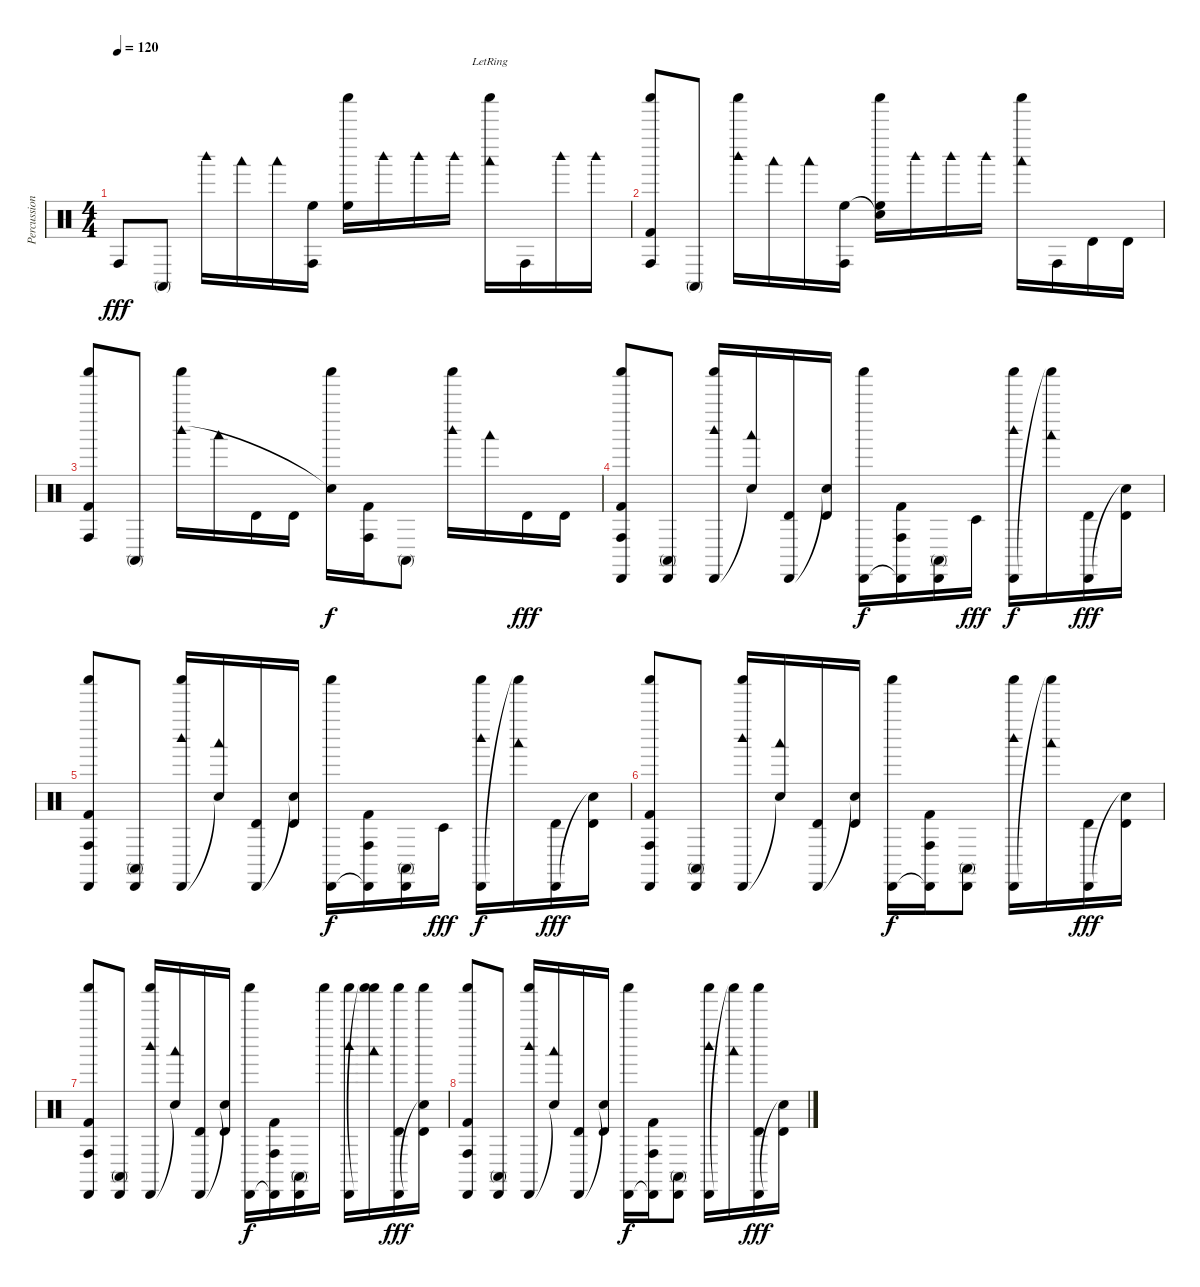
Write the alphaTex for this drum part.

\track ("Percussion" "Percussion") {instrument percussion}
\staff {score}
\articulation defaults
\ts (4 4)
\tempo 120
\clef neutral
\ks c "Conga high (hit)".8{dy fff} "Conga high (mute)".8 "Woodblock high (hit)".16 "Woodblock low (hit)".16 "Woodblock low (hit)".16
("Conga high (hit)" "High Floor Tom (hit)").16 ("Shaker (hit)" "High Floor Tom (hit)").16 "Woodblock high (hit)".16 "Woodblock high (hit)".16 "Woodblock high (hit)".16 ("Shaker (hit)"{lr} "Woodblock low (hit)").16 "Conga high (hit)".16 "Woodblock high (hit)".16 "Woodblock high (hit)".16 |
("Shaker (hit)" "Conga high (hit)" "Kick (hit) 2").8 "Conga high (mute)".8 ("Shaker (hit)" "Woodblock high (hit)").16 "Woodblock low (hit)".16 "Woodblock low (hit)".16 ("Conga high (hit)" "High Floor Tom (hit)").16 ("Shaker (hit)" "Snare (hit)"{t} "High Floor Tom (hit)").16 "Woodblock high (hit)".16 "Woodblock high (hit)".16 "Woodblock high (hit)".16 ("Shaker (hit)" "Woodblock low (hit)").16 "Conga high (hit)".16 "Timbale high (hit)".16 "Timbale high (hit)".16 |
("Shaker (hit)" "Conga high (hit)" "Kick (hit) 2").8 "Conga high (mute)".8 ("Shaker (hit)" "Woodblock high (hit)").16 "Woodblock low (hit)".16 "Timbale high (hit)".16 "Timbale high (hit)".16 ("Shaker (hit)" "Snare (hit)"{t}).16{dy f} ("Conga high (hit)" "Kick (hit) 2").16 "Conga high (mute)".8 ("Shaker (hit)" "Woodblock high (hit)").16 "Woodblock low (hit)".16 "Timbale high (hit)".16{dy fff} "Timbale high (hit)".16 |
("Cabasa (hit)" "Conga high (hit)" "Kick (hit) 2" "Shaker (hit)").8 ("Cabasa (hit)" "Conga high (mute)").8 ("Cabasa (hit)" "Woodblock high (hit)" "Shaker (hit)").16 ("Snare (hit)"{t} "Woodblock low (hit)").16 ("Cabasa (hit)" "Timbale high (hit)").16 ("Snare (hit)"{t} "Timbale high (hit)").16 ("Cabasa (hit)" "Shaker (hit)").16{dy f} ("Cabasa (hit)"{t} "Conga high (hit)" "Kick (hit) 2").16 ("Cabasa (hit)" "Conga high (mute)").16 "Timbale low (hit)".16{dy fff} ("Cabasa (hit)" "Woodblock high (hit)" "Shaker (hit)").16{dy f} ("Shaker (hit)"{t} "Woodblock low (hit)").16 ("Cabasa (hit)" "Timbale high (hit)").16{dy fff} ("Snare (hit)"{t} "Timbale high (hit)").16 |
("Cabasa (hit)" "Conga high (hit)" "Kick (hit) 2" "Shaker (hit)").8 ("Cabasa (hit)" "Conga high (mute)").8 ("Cabasa (hit)" "Woodblock high (hit)" "Shaker (hit)").16 ("Snare (hit)"{t} "Woodblock low (hit)").16 ("Cabasa (hit)" "Timbale high (hit)").16 ("Snare (hit)"{t} "Timbale high (hit)").16 ("Cabasa (hit)" "Shaker (hit)").16{dy f} ("Cabasa (hit)"{t} "Conga high (hit)" "Kick (hit) 2").16 ("Cabasa (hit)" "Conga high (mute)").16 "Timbale low (hit)".16{dy fff} ("Cabasa (hit)" "Woodblock high (hit)" "Shaker (hit)").16{dy f} ("Shaker (hit)"{t} "Woodblock low (hit)").16 ("Cabasa (hit)" "Timbale high (hit)").16{dy fff} ("Snare (hit)"{t} "Timbale high (hit)").16 |
("Cabasa (hit)" "Conga high (hit)" "Kick (hit) 2" "Shaker (hit)").8 ("Cabasa (hit)" "Conga high (mute)").8 ("Cabasa (hit)" "Woodblock high (hit)" "Shaker (hit)").16 ("Snare (hit)"{t} "Woodblock low (hit)").16 ("Cabasa (hit)" "Timbale high (hit)").16 ("Snare (hit)"{t} "Timbale high (hit)").16 ("Cabasa (hit)" "Shaker (hit)").16{dy f} ("Cabasa (hit)"{t} "Conga high (hit)" "Kick (hit) 2").16 ("Cabasa (hit)" "Conga high (mute)").8 ("Cabasa (hit)" "Woodblock high (hit)" "Shaker (hit)").16 ("Shaker (hit)"{t} "Woodblock low (hit)").16 ("Cabasa (hit)" "Timbale high (hit)").16{dy fff} ("Snare (hit)"{t} "Timbale high (hit)").16 |
("Cabasa (hit)" "Conga high (hit)" "Kick (hit) 2" "Shaker (hit)").8 ("Cabasa (hit)" "Conga high (mute)").8 ("Cabasa (hit)" "Woodblock high (hit)" "Shaker (hit)").16 ("Snare (hit)"{t} "Woodblock low (hit)").16 ("Cabasa (hit)" "Timbale high (hit)").16 ("Snare (hit)"{t} "Timbale high (hit)").16 ("Cabasa (hit)" "Shaker (hit)").16{dy f} ("Cabasa (hit)"{t} "Conga high (hit)" "Kick (hit) 2").16 ("Cabasa (hit)" "Conga high (mute)").16 "Shaker (hit)".16 ("Cabasa (hit)" "Woodblock high (hit)" "Shaker (hit)").16 ("Shaker (hit)"{t} "Woodblock low (hit)" "Shaker (hit)").16 ("Cabasa (hit)" "Timbale high (hit)" "Shaker (hit)").16{dy fff} ("Snare (hit)"{t} "Timbale high (hit)" "Shaker (hit)").16 |
("Cabasa (hit)" "Conga high (hit)" "Kick (hit) 2" "Shaker (hit)").8 ("Cabasa (hit)" "Conga high (mute)").8 ("Cabasa (hit)" "Woodblock high (hit)" "Shaker (hit)").16 ("Snare (hit)"{t} "Woodblock low (hit)").16 ("Cabasa (hit)" "Timbale high (hit)").16 ("Snare (hit)"{t} "Timbale high (hit)").16 ("Cabasa (hit)" "Shaker (hit)").16{dy f} ("Cabasa (hit)"{t} "Conga high (hit)" "Kick (hit) 2").16 ("Cabasa (hit)" "Conga high (mute)").8 ("Cabasa (hit)" "Woodblock high (hit)" "Shaker (hit)").16 ("Shaker (hit)"{t} "Woodblock low (hit)").16 ("Cabasa (hit)" "Timbale high (hit)" "Shaker (hit)").16{dy fff} ("Snare (hit)"{t} "Timbale high (hit)").16
